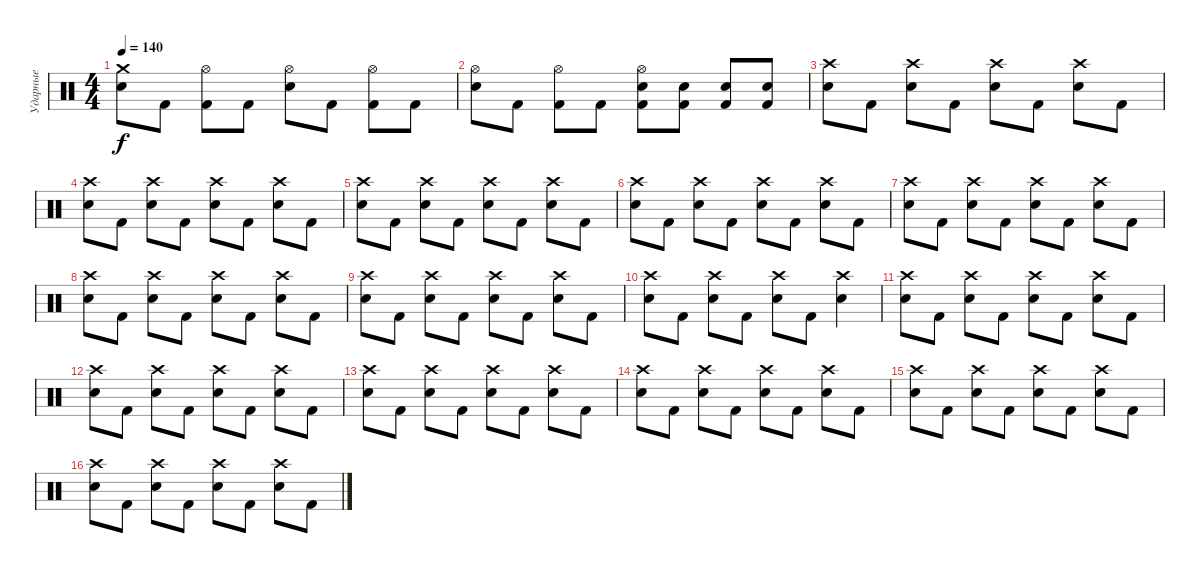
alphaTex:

\track ("Ударные" "Ударные") {instrument percussion}
\staff {score}
\articulation defaults
\ts (4 4)
\tempo 140
\clef neutral
\ks c
("Crash medium (hit)" "Electric Snare (hit)").8{dy f} "Kick (hit) 2".8 ("Hi-Hat (open)" "Kick (hit) 2").8 "Kick (hit) 2".8 ("Hi-Hat (open)" "Electric Snare (hit)").8 "Kick (hit) 2".8 ("Hi-Hat (open)" "Kick (hit) 2").8 "Kick (hit) 2".8 |
("Hi-Hat (open)" "Electric Snare (hit)").8 "Kick (hit) 2".8 ("Hi-Hat (open)" "Kick (hit) 2").8 "Kick (hit) 2".8 ("Hi-Hat (open)" "Electric Snare (hit)" "Kick (hit) 2").8 ("Electric Snare (hit)" "Kick (hit) 2").8 ("Electric Snare (hit)" "Kick (hit) 2").8 ("Electric Snare (hit)" "Kick (hit) 2").8 |
("Crash high (hit)" "Electric Snare (hit)").8 "Kick (hit) 2".8 ("Crash high (hit)" "Electric Snare (hit)").8 "Kick (hit) 2".8 ("Crash high (hit)" "Electric Snare (hit)").8 "Kick (hit) 2".8 ("Crash high (hit)" "Electric Snare (hit)").8 "Kick (hit) 2".8 |
("Crash high (hit)" "Electric Snare (hit)").8 "Kick (hit) 2".8 ("Crash high (hit)" "Electric Snare (hit)").8 "Kick (hit) 2".8 ("Crash high (hit)" "Electric Snare (hit)").8 "Kick (hit) 2".8 ("Crash high (hit)" "Electric Snare (hit)").8 "Kick (hit) 2".8 |
("Crash high (hit)" "Electric Snare (hit)").8 "Kick (hit) 2".8 ("Crash high (hit)" "Electric Snare (hit)").8 "Kick (hit) 2".8 ("Crash high (hit)" "Electric Snare (hit)").8 "Kick (hit) 2".8 ("Crash high (hit)" "Electric Snare (hit)").8 "Kick (hit) 2".8 |
("Crash high (hit)" "Electric Snare (hit)").8 "Kick (hit) 2".8 ("Crash high (hit)" "Electric Snare (hit)").8 "Kick (hit) 2".8 ("Crash high (hit)" "Electric Snare (hit)").8 "Kick (hit) 2".8 ("Crash high (hit)" "Electric Snare (hit)").8 "Kick (hit) 2".8 |
("Crash high (hit)" "Electric Snare (hit)").8 "Kick (hit) 2".8 ("Crash high (hit)" "Electric Snare (hit)").8 "Kick (hit) 2".8 ("Crash high (hit)" "Electric Snare (hit)").8 "Kick (hit) 2".8 ("Crash high (hit)" "Electric Snare (hit)").8 "Kick (hit) 2".8 |
("Crash high (hit)" "Electric Snare (hit)").8 "Kick (hit) 2".8 ("Crash high (hit)" "Electric Snare (hit)").8 "Kick (hit) 2".8 ("Crash high (hit)" "Electric Snare (hit)").8 "Kick (hit) 2".8 ("Crash high (hit)" "Electric Snare (hit)").8 "Kick (hit) 2".8 |
("Crash high (hit)" "Electric Snare (hit)").8 "Kick (hit) 2".8 ("Crash high (hit)" "Electric Snare (hit)").8 "Kick (hit) 2".8 ("Crash high (hit)" "Electric Snare (hit)").8 "Kick (hit) 2".8 ("Crash high (hit)" "Electric Snare (hit)").8 "Kick (hit) 2".8 |
("Crash high (hit)" "Electric Snare (hit)").8 "Kick (hit) 2".8 ("Crash high (hit)" "Electric Snare (hit)").8 "Kick (hit) 2".8 ("Crash high (hit)" "Electric Snare (hit)").8 "Kick (hit) 2".8 ("Crash high (hit)" "Electric Snare (hit)").4 |
("Crash high (hit)" "Electric Snare (hit)").8 "Kick (hit) 2".8 ("Crash high (hit)" "Electric Snare (hit)").8 "Kick (hit) 2".8 ("Crash high (hit)" "Electric Snare (hit)").8 "Kick (hit) 2".8 ("Crash high (hit)" "Electric Snare (hit)").8 "Kick (hit) 2".8 |
("Crash high (hit)" "Electric Snare (hit)").8 "Kick (hit) 2".8 ("Crash high (hit)" "Electric Snare (hit)").8 "Kick (hit) 2".8 ("Crash high (hit)" "Electric Snare (hit)").8 "Kick (hit) 2".8 ("Crash high (hit)" "Electric Snare (hit)").8 "Kick (hit) 2".8 |
("Crash high (hit)" "Electric Snare (hit)").8 "Kick (hit) 2".8 ("Crash high (hit)" "Electric Snare (hit)").8 "Kick (hit) 2".8 ("Crash high (hit)" "Electric Snare (hit)").8 "Kick (hit) 2".8 ("Crash high (hit)" "Electric Snare (hit)").8 "Kick (hit) 2".8 |
("Crash high (hit)" "Electric Snare (hit)").8 "Kick (hit) 2".8 ("Crash high (hit)" "Electric Snare (hit)").8 "Kick (hit) 2".8 ("Crash high (hit)" "Electric Snare (hit)").8 "Kick (hit) 2".8 ("Crash high (hit)" "Electric Snare (hit)").8 "Kick (hit) 2".8 |
("Crash high (hit)" "Electric Snare (hit)").8 "Kick (hit) 2".8 ("Crash high (hit)" "Electric Snare (hit)").8 "Kick (hit) 2".8 ("Crash high (hit)" "Electric Snare (hit)").8 "Kick (hit) 2".8 ("Crash high (hit)" "Electric Snare (hit)").8 "Kick (hit) 2".8 |
("Crash high (hit)" "Electric Snare (hit)").8 "Kick (hit) 2".8 ("Crash high (hit)" "Electric Snare (hit)").8 "Kick (hit) 2".8 ("Crash high (hit)" "Electric Snare (hit)").8 "Kick (hit) 2".8 ("Crash high (hit)" "Electric Snare (hit)").8 "Kick (hit) 2".8
